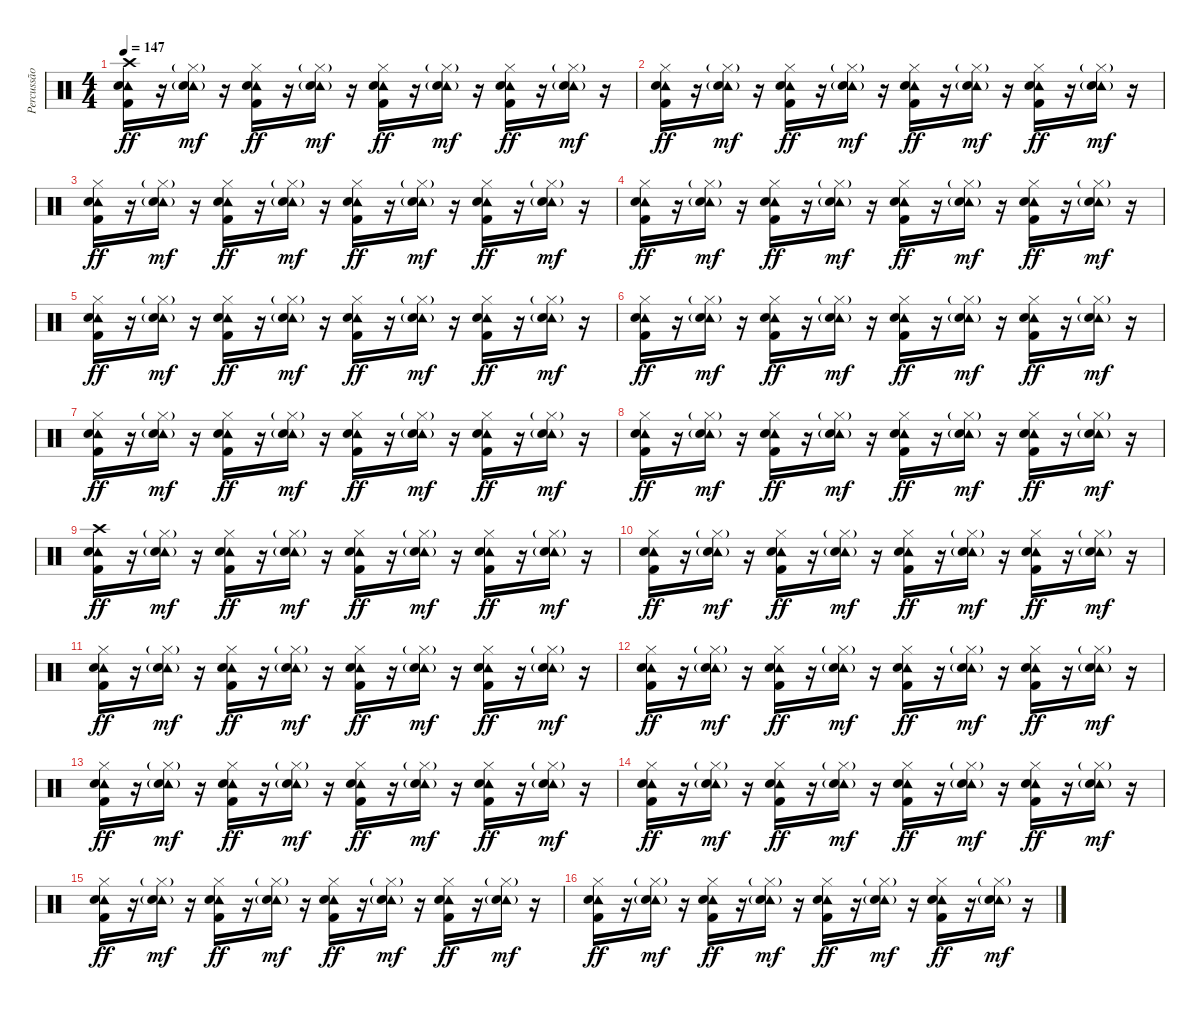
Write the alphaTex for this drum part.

\track ("Percussão" "Percussão") {instrument percussion}
\staff {score}
\articulation defaults
\ts (4 4)
\tempo 147
\clef neutral
\ks c
("Crash high (hit)" "Tambourine (hit)" "Snare (hit) 2" "Kick (hit) 2").16{dy ff volume 13} r.16 ("Hi-Hat (closed)"{g} "Tambourine (hit)" "Snare (hit) 2"{g}).16{dy mf} r.16 ("Hi-Hat (closed)" "Tambourine (hit)" "Snare (hit) 2" "Kick (hit) 2").16{dy ff} r.16 ("Hi-Hat (closed)"{g} "Tambourine (hit)" "Snare (hit) 2"{g}).16{dy mf} r.16 ("Hi-Hat (closed)" "Tambourine (hit)" "Snare (hit) 2" "Kick (hit) 2").16{dy ff} r.16 ("Hi-Hat (closed)"{g} "Tambourine (hit)" "Snare (hit) 2"{g}).16{dy mf} r.16 ("Hi-Hat (closed)" "Tambourine (hit)" "Snare (hit) 2" "Kick (hit) 2").16{dy ff} r.16 ("Hi-Hat (closed)"{g} "Tambourine (hit)" "Snare (hit) 2"{g}).16{dy mf} r.16 |
("Hi-Hat (closed)" "Tambourine (hit)" "Snare (hit) 2" "Kick (hit) 2").16{dy ff} r.16 ("Hi-Hat (closed)"{g} "Tambourine (hit)" "Snare (hit) 2"{g}).16{dy mf} r.16 ("Hi-Hat (closed)" "Tambourine (hit)" "Snare (hit) 2" "Kick (hit) 2").16{dy ff} r.16 ("Hi-Hat (closed)"{g} "Tambourine (hit)" "Snare (hit) 2"{g}).16{dy mf} r.16 ("Hi-Hat (closed)" "Tambourine (hit)" "Snare (hit) 2" "Kick (hit) 2").16{dy ff} r.16 ("Hi-Hat (closed)"{g} "Tambourine (hit)" "Snare (hit) 2"{g}).16{dy mf} r.16 ("Hi-Hat (closed)" "Tambourine (hit)" "Snare (hit) 2" "Kick (hit) 2").16{dy ff} r.16 ("Hi-Hat (closed)"{g} "Tambourine (hit)" "Snare (hit) 2"{g}).16{dy mf} r.16 |
("Hi-Hat (closed)" "Tambourine (hit)" "Snare (hit) 2" "Kick (hit) 2").16{dy ff volume 13} r.16 ("Hi-Hat (closed)"{g} "Tambourine (hit)" "Snare (hit) 2"{g}).16{dy mf} r.16 ("Hi-Hat (closed)" "Tambourine (hit)" "Snare (hit) 2" "Kick (hit) 2").16{dy ff} r.16 ("Hi-Hat (closed)"{g} "Tambourine (hit)" "Snare (hit) 2"{g}).16{dy mf} r.16 ("Hi-Hat (closed)" "Tambourine (hit)" "Snare (hit) 2" "Kick (hit) 2").16{dy ff} r.16 ("Hi-Hat (closed)"{g} "Tambourine (hit)" "Snare (hit) 2"{g}).16{dy mf} r.16 ("Hi-Hat (closed)" "Tambourine (hit)" "Snare (hit) 2" "Kick (hit) 2").16{dy ff} r.16 ("Hi-Hat (closed)"{g} "Tambourine (hit)" "Snare (hit) 2"{g}).16{dy mf} r.16 |
("Hi-Hat (closed)" "Tambourine (hit)" "Snare (hit) 2" "Kick (hit) 2").16{dy ff} r.16 ("Hi-Hat (closed)"{g} "Tambourine (hit)" "Snare (hit) 2"{g}).16{dy mf} r.16 ("Hi-Hat (closed)" "Tambourine (hit)" "Snare (hit) 2" "Kick (hit) 2").16{dy ff} r.16 ("Hi-Hat (closed)"{g} "Tambourine (hit)" "Snare (hit) 2"{g}).16{dy mf} r.16 ("Hi-Hat (closed)" "Tambourine (hit)" "Snare (hit) 2" "Kick (hit) 2").16{dy ff} r.16 ("Hi-Hat (closed)"{g} "Tambourine (hit)" "Snare (hit) 2"{g}).16{dy mf} r.16 ("Hi-Hat (closed)" "Tambourine (hit)" "Snare (hit) 2" "Kick (hit) 2").16{dy ff} r.16 ("Hi-Hat (closed)"{g} "Tambourine (hit)" "Snare (hit) 2"{g}).16{dy mf} r.16 |
("Hi-Hat (closed)" "Tambourine (hit)" "Snare (hit) 2" "Kick (hit) 2").16{dy ff volume 13} r.16 ("Hi-Hat (closed)"{g} "Tambourine (hit)" "Snare (hit) 2"{g}).16{dy mf} r.16 ("Hi-Hat (closed)" "Tambourine (hit)" "Snare (hit) 2" "Kick (hit) 2").16{dy ff} r.16 ("Hi-Hat (closed)"{g} "Tambourine (hit)" "Snare (hit) 2"{g}).16{dy mf} r.16 ("Hi-Hat (closed)" "Tambourine (hit)" "Snare (hit) 2" "Kick (hit) 2").16{dy ff} r.16 ("Hi-Hat (closed)"{g} "Tambourine (hit)" "Snare (hit) 2"{g}).16{dy mf} r.16 ("Hi-Hat (closed)" "Tambourine (hit)" "Snare (hit) 2" "Kick (hit) 2").16{dy ff} r.16 ("Hi-Hat (closed)"{g} "Tambourine (hit)" "Snare (hit) 2"{g}).16{dy mf} r.16 |
("Hi-Hat (closed)" "Tambourine (hit)" "Snare (hit) 2" "Kick (hit) 2").16{dy ff} r.16 ("Hi-Hat (closed)"{g} "Tambourine (hit)" "Snare (hit) 2"{g}).16{dy mf} r.16 ("Hi-Hat (closed)" "Tambourine (hit)" "Snare (hit) 2" "Kick (hit) 2").16{dy ff} r.16 ("Hi-Hat (closed)"{g} "Tambourine (hit)" "Snare (hit) 2"{g}).16{dy mf} r.16 ("Hi-Hat (closed)" "Tambourine (hit)" "Snare (hit) 2" "Kick (hit) 2").16{dy ff} r.16 ("Hi-Hat (closed)"{g} "Tambourine (hit)" "Snare (hit) 2"{g}).16{dy mf} r.16 ("Hi-Hat (closed)" "Tambourine (hit)" "Snare (hit) 2" "Kick (hit) 2").16{dy ff} r.16 ("Hi-Hat (closed)"{g} "Tambourine (hit)" "Snare (hit) 2"{g}).16{dy mf} r.16 |
("Hi-Hat (closed)" "Tambourine (hit)" "Snare (hit) 2" "Kick (hit) 2").16{dy ff volume 13} r.16 ("Hi-Hat (closed)"{g} "Tambourine (hit)" "Snare (hit) 2"{g}).16{dy mf} r.16 ("Hi-Hat (closed)" "Tambourine (hit)" "Snare (hit) 2" "Kick (hit) 2").16{dy ff} r.16 ("Hi-Hat (closed)"{g} "Tambourine (hit)" "Snare (hit) 2"{g}).16{dy mf} r.16 ("Hi-Hat (closed)" "Tambourine (hit)" "Snare (hit) 2" "Kick (hit) 2").16{dy ff} r.16 ("Hi-Hat (closed)"{g} "Tambourine (hit)" "Snare (hit) 2"{g}).16{dy mf} r.16 ("Hi-Hat (closed)" "Tambourine (hit)" "Snare (hit) 2" "Kick (hit) 2").16{dy ff} r.16 ("Hi-Hat (closed)"{g} "Tambourine (hit)" "Snare (hit) 2"{g}).16{dy mf} r.16 |
("Hi-Hat (closed)" "Tambourine (hit)" "Snare (hit) 2" "Kick (hit) 2").16{dy ff} r.16 ("Hi-Hat (closed)"{g} "Tambourine (hit)" "Snare (hit) 2"{g}).16{dy mf} r.16 ("Hi-Hat (closed)" "Tambourine (hit)" "Snare (hit) 2" "Kick (hit) 2").16{dy ff} r.16 ("Hi-Hat (closed)"{g} "Tambourine (hit)" "Snare (hit) 2"{g}).16{dy mf} r.16 ("Hi-Hat (closed)" "Tambourine (hit)" "Snare (hit) 2" "Kick (hit) 2").16{dy ff} r.16 ("Hi-Hat (closed)"{g} "Tambourine (hit)" "Snare (hit) 2"{g}).16{dy mf} r.16 ("Hi-Hat (closed)" "Tambourine (hit)" "Snare (hit) 2" "Kick (hit) 2").16{dy ff} r.16 ("Hi-Hat (closed)"{g} "Tambourine (hit)" "Snare (hit) 2"{g}).16{dy mf} r.16 |
("Crash high (hit)" "Tambourine (hit)" "Snare (hit) 2" "Kick (hit) 2").16{dy ff volume 13} r.16 ("Hi-Hat (closed)"{g} "Tambourine (hit)" "Snare (hit) 2"{g}).16{dy mf} r.16 ("Hi-Hat (closed)" "Tambourine (hit)" "Snare (hit) 2" "Kick (hit) 2").16{dy ff} r.16 ("Hi-Hat (closed)"{g} "Tambourine (hit)" "Snare (hit) 2"{g}).16{dy mf} r.16 ("Hi-Hat (closed)" "Tambourine (hit)" "Snare (hit) 2" "Kick (hit) 2").16{dy ff} r.16 ("Hi-Hat (closed)"{g} "Tambourine (hit)" "Snare (hit) 2"{g}).16{dy mf} r.16 ("Hi-Hat (closed)" "Tambourine (hit)" "Snare (hit) 2" "Kick (hit) 2").16{dy ff} r.16 ("Hi-Hat (closed)"{g} "Tambourine (hit)" "Snare (hit) 2"{g}).16{dy mf} r.16 |
("Hi-Hat (closed)" "Tambourine (hit)" "Snare (hit) 2" "Kick (hit) 2").16{dy ff} r.16 ("Hi-Hat (closed)"{g} "Tambourine (hit)" "Snare (hit) 2"{g}).16{dy mf} r.16 ("Hi-Hat (closed)" "Tambourine (hit)" "Snare (hit) 2" "Kick (hit) 2").16{dy ff} r.16 ("Hi-Hat (closed)"{g} "Tambourine (hit)" "Snare (hit) 2"{g}).16{dy mf} r.16 ("Hi-Hat (closed)" "Tambourine (hit)" "Snare (hit) 2" "Kick (hit) 2").16{dy ff} r.16 ("Hi-Hat (closed)"{g} "Tambourine (hit)" "Snare (hit) 2"{g}).16{dy mf} r.16 ("Hi-Hat (closed)" "Tambourine (hit)" "Snare (hit) 2" "Kick (hit) 2").16{dy ff} r.16 ("Hi-Hat (closed)"{g} "Tambourine (hit)" "Snare (hit) 2"{g}).16{dy mf} r.16 |
("Hi-Hat (closed)" "Tambourine (hit)" "Snare (hit) 2" "Kick (hit) 2").16{dy ff volume 13} r.16 ("Hi-Hat (closed)"{g} "Tambourine (hit)" "Snare (hit) 2"{g}).16{dy mf} r.16 ("Hi-Hat (closed)" "Tambourine (hit)" "Snare (hit) 2" "Kick (hit) 2").16{dy ff} r.16 ("Hi-Hat (closed)"{g} "Tambourine (hit)" "Snare (hit) 2"{g}).16{dy mf} r.16 ("Hi-Hat (closed)" "Tambourine (hit)" "Snare (hit) 2" "Kick (hit) 2").16{dy ff} r.16 ("Hi-Hat (closed)"{g} "Tambourine (hit)" "Snare (hit) 2"{g}).16{dy mf} r.16 ("Hi-Hat (closed)" "Tambourine (hit)" "Snare (hit) 2" "Kick (hit) 2").16{dy ff} r.16 ("Hi-Hat (closed)"{g} "Tambourine (hit)" "Snare (hit) 2"{g}).16{dy mf} r.16 |
("Hi-Hat (closed)" "Tambourine (hit)" "Snare (hit) 2" "Kick (hit) 2").16{dy ff} r.16 ("Hi-Hat (closed)"{g} "Tambourine (hit)" "Snare (hit) 2"{g}).16{dy mf} r.16 ("Hi-Hat (closed)" "Tambourine (hit)" "Snare (hit) 2" "Kick (hit) 2").16{dy ff} r.16 ("Hi-Hat (closed)"{g} "Tambourine (hit)" "Snare (hit) 2"{g}).16{dy mf} r.16 ("Hi-Hat (closed)" "Tambourine (hit)" "Snare (hit) 2" "Kick (hit) 2").16{dy ff} r.16 ("Hi-Hat (closed)"{g} "Tambourine (hit)" "Snare (hit) 2"{g}).16{dy mf} r.16 ("Hi-Hat (closed)" "Tambourine (hit)" "Snare (hit) 2" "Kick (hit) 2").16{dy ff} r.16 ("Hi-Hat (closed)"{g} "Tambourine (hit)" "Snare (hit) 2"{g}).16{dy mf} r.16 |
("Hi-Hat (closed)" "Tambourine (hit)" "Snare (hit) 2" "Kick (hit) 2").16{dy ff volume 13} r.16 ("Hi-Hat (closed)"{g} "Tambourine (hit)" "Snare (hit) 2"{g}).16{dy mf} r.16 ("Hi-Hat (closed)" "Tambourine (hit)" "Snare (hit) 2" "Kick (hit) 2").16{dy ff} r.16 ("Hi-Hat (closed)"{g} "Tambourine (hit)" "Snare (hit) 2"{g}).16{dy mf} r.16 ("Hi-Hat (closed)" "Tambourine (hit)" "Snare (hit) 2" "Kick (hit) 2").16{dy ff} r.16 ("Hi-Hat (closed)"{g} "Tambourine (hit)" "Snare (hit) 2"{g}).16{dy mf} r.16 ("Hi-Hat (closed)" "Tambourine (hit)" "Snare (hit) 2" "Kick (hit) 2").16{dy ff} r.16 ("Hi-Hat (closed)"{g} "Tambourine (hit)" "Snare (hit) 2"{g}).16{dy mf} r.16 |
("Hi-Hat (closed)" "Tambourine (hit)" "Snare (hit) 2" "Kick (hit) 2").16{dy ff} r.16 ("Hi-Hat (closed)"{g} "Tambourine (hit)" "Snare (hit) 2"{g}).16{dy mf} r.16 ("Hi-Hat (closed)" "Tambourine (hit)" "Snare (hit) 2" "Kick (hit) 2").16{dy ff} r.16 ("Hi-Hat (closed)"{g} "Tambourine (hit)" "Snare (hit) 2"{g}).16{dy mf} r.16 ("Hi-Hat (closed)" "Tambourine (hit)" "Snare (hit) 2" "Kick (hit) 2").16{dy ff} r.16 ("Hi-Hat (closed)"{g} "Tambourine (hit)" "Snare (hit) 2"{g}).16{dy mf} r.16 ("Hi-Hat (closed)" "Tambourine (hit)" "Snare (hit) 2" "Kick (hit) 2").16{dy ff} r.16 ("Hi-Hat (closed)"{g} "Tambourine (hit)" "Snare (hit) 2"{g}).16{dy mf} r.16 |
("Hi-Hat (closed)" "Tambourine (hit)" "Snare (hit) 2" "Kick (hit) 2").16{dy ff volume 13} r.16 ("Hi-Hat (closed)"{g} "Tambourine (hit)" "Snare (hit) 2"{g}).16{dy mf} r.16 ("Hi-Hat (closed)" "Tambourine (hit)" "Snare (hit) 2" "Kick (hit) 2").16{dy ff} r.16 ("Hi-Hat (closed)"{g} "Tambourine (hit)" "Snare (hit) 2"{g}).16{dy mf} r.16 ("Hi-Hat (closed)" "Tambourine (hit)" "Snare (hit) 2" "Kick (hit) 2").16{dy ff} r.16 ("Hi-Hat (closed)"{g} "Tambourine (hit)" "Snare (hit) 2"{g}).16{dy mf} r.16 ("Hi-Hat (closed)" "Tambourine (hit)" "Snare (hit) 2" "Kick (hit) 2").16{dy ff} r.16 ("Hi-Hat (closed)"{g} "Tambourine (hit)" "Snare (hit) 2"{g}).16{dy mf} r.16 |
("Hi-Hat (closed)" "Tambourine (hit)" "Snare (hit) 2" "Kick (hit) 2").16{dy ff} r.16 ("Hi-Hat (closed)"{g} "Tambourine (hit)" "Snare (hit) 2"{g}).16{dy mf} r.16 ("Hi-Hat (closed)" "Tambourine (hit)" "Snare (hit) 2" "Kick (hit) 2").16{dy ff} r.16 ("Hi-Hat (closed)"{g} "Tambourine (hit)" "Snare (hit) 2"{g}).16{dy mf} r.16 ("Hi-Hat (closed)" "Tambourine (hit)" "Snare (hit) 2" "Kick (hit) 2").16{dy ff} r.16 ("Hi-Hat (closed)"{g} "Tambourine (hit)" "Snare (hit) 2"{g}).16{dy mf} r.16 ("Hi-Hat (closed)" "Tambourine (hit)" "Snare (hit) 2" "Kick (hit) 2").16{dy ff} r.16 ("Hi-Hat (closed)"{g} "Tambourine (hit)" "Snare (hit) 2"{g}).16{dy mf} r.16
